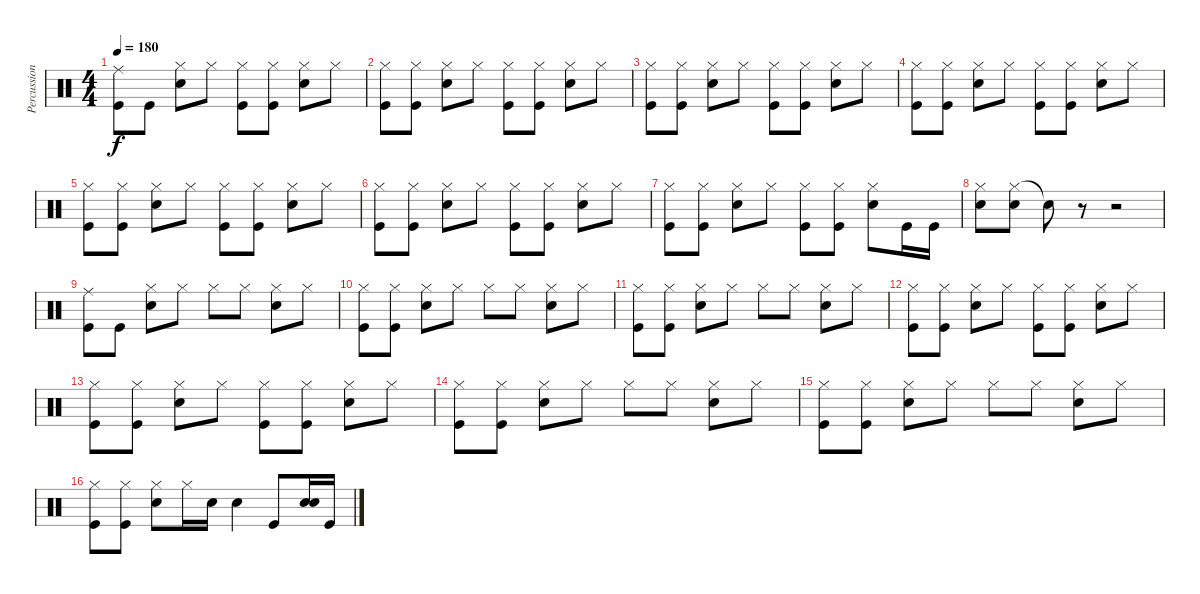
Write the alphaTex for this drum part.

\track ("Percussion" "Percussion") {instrument percussion}
\staff {score}
\articulation defaults
\ts (4 4)
\tempo 180
\clef neutral
\ks c
("Ride (middle)" "Kick (hit)").8{dy f} "Kick (hit)".8 ("Hi-Hat (closed)" "Snare (hit) 2").8 "Hi-Hat (closed)".8 ("Hi-Hat (closed)" "Kick (hit)").8 ("Hi-Hat (closed)" "Kick (hit)").8 ("Hi-Hat (closed)" "Snare (hit) 2").8 "Hi-Hat (closed)".8 |
("Hi-Hat (closed)" "Kick (hit)").8 ("Hi-Hat (closed)" "Kick (hit)").8 ("Hi-Hat (closed)" "Snare (hit) 2").8 "Hi-Hat (closed)".8 ("Hi-Hat (closed)" "Kick (hit)").8 ("Hi-Hat (closed)" "Kick (hit)").8 ("Hi-Hat (closed)" "Snare (hit) 2").8 "Hi-Hat (closed)".8 |
("Hi-Hat (closed)" "Kick (hit)").8 ("Hi-Hat (closed)" "Kick (hit)").8 ("Hi-Hat (closed)" "Snare (hit) 2").8 "Hi-Hat (closed)".8 ("Hi-Hat (closed)" "Kick (hit)").8 ("Hi-Hat (closed)" "Kick (hit)").8 ("Hi-Hat (closed)" "Snare (hit) 2").8 "Hi-Hat (closed)".8 |
("Hi-Hat (closed)" "Kick (hit)").8 ("Hi-Hat (closed)" "Kick (hit)").8 ("Hi-Hat (closed)" "Snare (hit) 2").8 "Hi-Hat (closed)".8 ("Hi-Hat (closed)" "Kick (hit)").8 ("Hi-Hat (closed)" "Kick (hit)").8 ("Hi-Hat (closed)" "Snare (hit) 2").8 "Hi-Hat (closed)".8 |
("Hi-Hat (closed)" "Kick (hit)").8 ("Hi-Hat (closed)" "Kick (hit)").8 ("Hi-Hat (closed)" "Snare (hit) 2").8 "Hi-Hat (closed)".8 ("Hi-Hat (closed)" "Kick (hit)").8 ("Hi-Hat (closed)" "Kick (hit)").8 ("Hi-Hat (closed)" "Snare (hit) 2").8 "Hi-Hat (closed)".8 |
("Hi-Hat (closed)" "Kick (hit)").8 ("Hi-Hat (closed)" "Kick (hit)").8 ("Hi-Hat (closed)" "Snare (hit) 2").8 "Hi-Hat (closed)".8 ("Hi-Hat (closed)" "Kick (hit)").8 ("Hi-Hat (closed)" "Kick (hit)").8 ("Hi-Hat (closed)" "Snare (hit) 2").8 "Hi-Hat (closed)".8 |
("Hi-Hat (closed)" "Kick (hit)").8 ("Hi-Hat (closed)" "Kick (hit)").8 ("Hi-Hat (closed)" "Snare (hit) 2").8 "Hi-Hat (closed)".8 ("Hi-Hat (closed)" "Kick (hit)").8 ("Hi-Hat (closed)" "Kick (hit)").8 ("Hi-Hat (closed)" "Snare (hit) 2").8 "Kick (hit)".16 "Kick (hit)".16 |
("Hi-Hat (closed)" "Snare (hit) 2").8 ("Hi-Hat (closed)" "Snare (hit) 2").8 "Snare (hit)"{t}.8 r.8 r.2 |
("Ride (middle)" "Kick (hit)").8 "Kick (hit)".8 ("Hi-Hat (closed)" "Snare (hit) 2").8 "Hi-Hat (closed)".8 "Hi-Hat (closed)".8 "Hi-Hat (closed)".8 ("Hi-Hat (closed)" "Snare (hit) 2").8 "Hi-Hat (closed)".8 |
("Hi-Hat (closed)" "Kick (hit)").8 ("Hi-Hat (closed)" "Kick (hit)").8 ("Hi-Hat (closed)" "Snare (hit) 2").8 "Hi-Hat (closed)".8 "Hi-Hat (closed)".8 "Hi-Hat (closed)".8 ("Hi-Hat (closed)" "Snare (hit) 2").8 "Hi-Hat (closed)".8 |
("Hi-Hat (closed)" "Kick (hit)").8 ("Hi-Hat (closed)" "Kick (hit)").8 ("Hi-Hat (closed)" "Snare (hit) 2").8 "Hi-Hat (closed)".8 "Hi-Hat (closed)".8 "Hi-Hat (closed)".8 ("Hi-Hat (closed)" "Snare (hit) 2").8 "Hi-Hat (closed)".8 |
("Hi-Hat (closed)" "Kick (hit)").8 ("Hi-Hat (closed)" "Kick (hit)").8 ("Hi-Hat (closed)" "Snare (hit) 2").8 "Hi-Hat (closed)".8 ("Hi-Hat (closed)" "Kick (hit)").8 ("Hi-Hat (closed)" "Kick (hit)").8 ("Hi-Hat (closed)" "Snare (hit) 2").8 "Hi-Hat (closed)".8 |
("Hi-Hat (closed)" "Kick (hit)").8 ("Hi-Hat (closed)" "Kick (hit)").8 ("Hi-Hat (closed)" "Snare (hit) 2").8 "Hi-Hat (closed)".8 ("Hi-Hat (closed)" "Kick (hit)").8 ("Hi-Hat (closed)" "Kick (hit)").8 ("Hi-Hat (closed)" "Snare (hit) 2").8 "Hi-Hat (closed)".8 |
("Hi-Hat (closed)" "Kick (hit)").8 ("Hi-Hat (closed)" "Kick (hit)").8 ("Hi-Hat (closed)" "Snare (hit) 2").8 "Hi-Hat (closed)".8 "Hi-Hat (closed)".8 "Hi-Hat (closed)".8 ("Hi-Hat (closed)" "Snare (hit) 2").8 "Hi-Hat (closed)".8 |
("Hi-Hat (closed)" "Kick (hit)").8 ("Hi-Hat (closed)" "Kick (hit)").8 ("Hi-Hat (closed)" "Snare (hit) 2").8 "Hi-Hat (closed)".8 "Hi-Hat (closed)".8 "Hi-Hat (closed)".8 ("Hi-Hat (closed)" "Snare (hit) 2").8 "Hi-Hat (closed)".8 |
("Hi-Hat (closed)" "Kick (hit)").8 ("Hi-Hat (closed)" "Kick (hit)").8 ("Hi-Hat (closed)" "Snare (hit) 2").8 "Hi-Hat (closed)".16 "Snare (hit) 2".16 "Snare (hit) 2".4 "Kick (hit)".8 ("Snare (hit) 2" "Snare (hit) 2").16 "Kick (hit)".16
